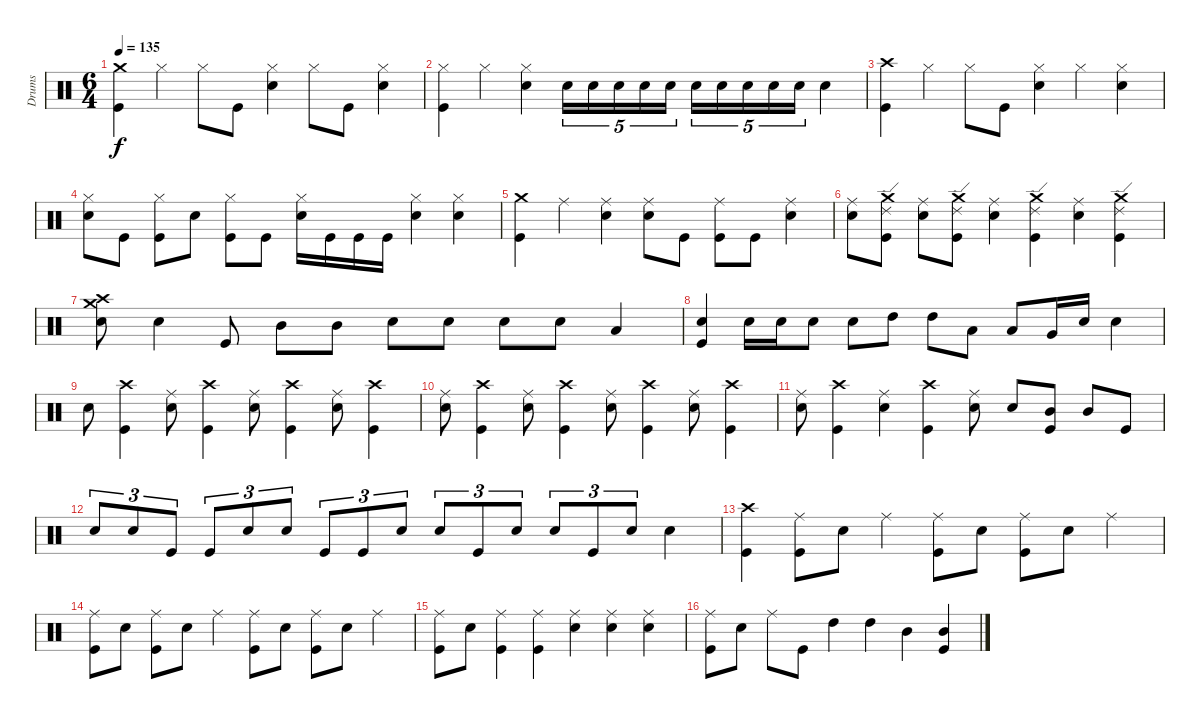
\track ("Drums" "Drums") {instrument percussion}
\staff {score}
\articulation defaults
\ts (6 4)
\tempo 135
\clef neutral
\ks c
("Crash medium (hit)" "Kick (hit)").4{dy f} "Hi-Hat (closed)".4 "Hi-Hat (closed)".8 "Kick (hit)".8 ("Hi-Hat (closed)" "Electric Snare (hit)").4 "Hi-Hat (closed)".8 "Kick (hit)".8 ("Hi-Hat (closed)" "Electric Snare (hit)").4 |
("Hi-Hat (closed)" "Kick (hit)").4 "Hi-Hat (closed)".4 ("Hi-Hat (closed)" "Electric Snare (hit)").4 "Electric Snare (hit)".16{tu (5 4)} "Electric Snare (hit)".16{tu (5 4)} "Electric Snare (hit)".16{tu (5 4)} "Electric Snare (hit)".16{tu (5 4)} "Electric Snare (hit)".16{tu (5 4) beam splitsecondary} "Electric Snare (hit)".16{tu (5 4)} "Electric Snare (hit)".16{tu (5 4)} "Electric Snare (hit)".16{tu (5 4)} "Electric Snare (hit)".16{tu (5 4)} "Electric Snare (hit)".16{tu (5 4)} "Electric Snare (hit)".4 |
("Crash high (hit)" "Kick (hit)").4 "Hi-Hat (closed)".4 "Hi-Hat (closed)".8 "Kick (hit)".8 ("Hi-Hat (closed)" "Electric Snare (hit)").4 "Hi-Hat (closed)".4 ("Hi-Hat (closed)" "Electric Snare (hit)").4 |
("Hi-Hat (closed)" "Electric Snare (hit)").8 "Kick (hit)".8 ("Hi-Hat (closed)" "Kick (hit)").8 "Electric Snare (hit)".8 ("Hi-Hat (closed)" "Kick (hit)").8 "Kick (hit)".8 ("Hi-Hat (closed)" "Electric Snare (hit)").16 "Kick (hit)".16 "Kick (hit)".16 "Kick (hit)".16 ("Hi-Hat (closed)" "Electric Snare (hit)").4 ("Hi-Hat (closed)" "Electric Snare (hit)").4 |
("Kick (hit)" "Crash medium (hit)").4 "Ride (middle)".4 ("Ride (middle)" "Electric Snare (hit)").4 ("Ride (middle)" "Electric Snare (hit)").8 "Kick (hit)".8 ("Ride (middle)" "Kick (hit)").8 "Kick (hit)".8 ("Electric Snare (hit)" "Ride (middle)").4 |
("Electric Snare (hit)" "Ride (middle)").8 ("Crash medium (hit)" "Kick (hit)" "Ride (edge) 2").8 ("Electric Snare (hit)" "Ride (middle)").8 ("Crash medium (hit)" "Ride (edge) 2" "Kick (hit)").8 ("Ride (middle)" "Electric Snare (hit)").4 ("Crash medium (hit)" "Kick (hit)" "Ride (edge) 2").4 ("Ride (middle)" "Electric Snare (hit)").4 ("Crash medium (hit)" "Ride (edge) 2" "Kick (hit)").4 |
("Crash high (hit)" "Crash medium (hit)" "Electric Snare (hit)").8 "Electric Snare (hit)".4 "Kick (hit)".8 "Mid Tom (hit)".8 "Mid Tom (hit)".8 "Electric Snare (hit)".8 "Electric Snare (hit)".8 "Electric Snare (hit)".8 "Electric Snare (hit)".8 "Low Tom (hit)".4 |
("Kick (hit)" "Electric Snare (hit)").4 "Electric Snare (hit)".16 "Electric Snare (hit)".16 "Electric Snare (hit)".8 "Electric Snare (hit)".8 "High Tom (hit)".8 "High Tom (hit)".8 "Low Tom (hit)".8 "Low Tom (hit)".8 "Very Low Tom (hit)".16 "Electric Snare (hit)".16 "Electric Snare (hit)".4 |
"Electric Snare (hit)".8 ("Kick (hit)" "Crash high (hit)").4 ("Ride (middle)" "Electric Snare (hit)").8 ("Crash high (hit)" "Kick (hit)").4 ("Electric Snare (hit)" "Ride (middle)").8 ("Kick (hit)" "Crash high (hit)").4 ("Electric Snare (hit)" "Ride (middle)").8 ("Kick (hit)" "Crash high (hit)").4 |
("Electric Snare (hit)" "Ride (middle)").8 ("Kick (hit)" "Crash high (hit)").4 ("Ride (middle)" "Electric Snare (hit)").8 ("Crash high (hit)" "Kick (hit)").4 ("Electric Snare (hit)" "Ride (middle)").8 ("Crash high (hit)" "Kick (hit)").4 ("Ride (middle)" "Electric Snare (hit)").8 ("Kick (hit)" "Crash high (hit)").4 |
("Electric Snare (hit)" "Ride (middle)").8 ("Kick (hit)" "Crash high (hit)").4 ("Electric Snare (hit)" "Ride (middle)").4 ("Crash high (hit)" "Kick (hit)").4 ("Ride (middle)" "Electric Snare (hit)").8 "Electric Snare (hit)".8 ("Mid Tom (hit)" "Kick (hit)").8 "Mid Tom (hit)".8 "Kick (hit)".8 |
"Electric Snare (hit)".8{tu (3 2)} "Electric Snare (hit)".8{tu (3 2)} "Kick (hit)".8{tu (3 2)} "Kick (hit)".8{tu (3 2)} "Electric Snare (hit)".8{tu (3 2)} "Electric Snare (hit)".8{tu (3 2)} "Kick (hit)".8{tu (3 2)} "Kick (hit)".8{tu (3 2)} "Electric Snare (hit)".8{tu (3 2)} "Electric Snare (hit)".8{tu (3 2)} "Kick (hit)".8{tu (3 2)} "Electric Snare (hit)".8{tu (3 2)} "Electric Snare (hit)".8{tu (3 2)} "Kick (hit)".8{tu (3 2)} "Electric Snare (hit)".8{tu (3 2)} "Electric Snare (hit)".4 |
("Crash high (hit)" "Kick (hit)").4 ("Kick (hit)" "Ride (middle)").8 "Electric Snare (hit)".8 "Ride (middle)".4 ("Kick (hit)" "Ride (middle)").8 "Electric Snare (hit)".8 ("Kick (hit)" "Ride (middle)").8 "Electric Snare (hit)".8 "Ride (middle)".4 |
("Ride (middle)" "Kick (hit)").8 "Electric Snare (hit)".8 ("Kick (hit)" "Ride (middle)").8 "Electric Snare (hit)".8 "Ride (middle)".4 ("Kick (hit)" "Ride (middle)").8 "Electric Snare (hit)".8 ("Kick (hit)" "Ride (middle)").8 "Electric Snare (hit)".8 "Ride (middle)".4 |
("Kick (hit)" "Ride (middle)").8 "Electric Snare (hit)".8 ("Kick (hit)" "Ride (middle)").4 ("Ride (middle)" "Kick (hit)").4 ("Ride (middle)" "Electric Snare (hit)").4 ("Electric Snare (hit)" "Ride (middle)").4 ("Ride (middle)" "Electric Snare (hit)").4 |
("Ride (middle)" "Kick (hit)").8 "Electric Snare (hit)".8 "Ride (middle)".8 "Kick (hit)".8 "High Tom (hit)".4 "High Tom (hit)".4 "Mid Tom (hit)".4 ("Mid Tom (hit)" "Kick (hit)").4
